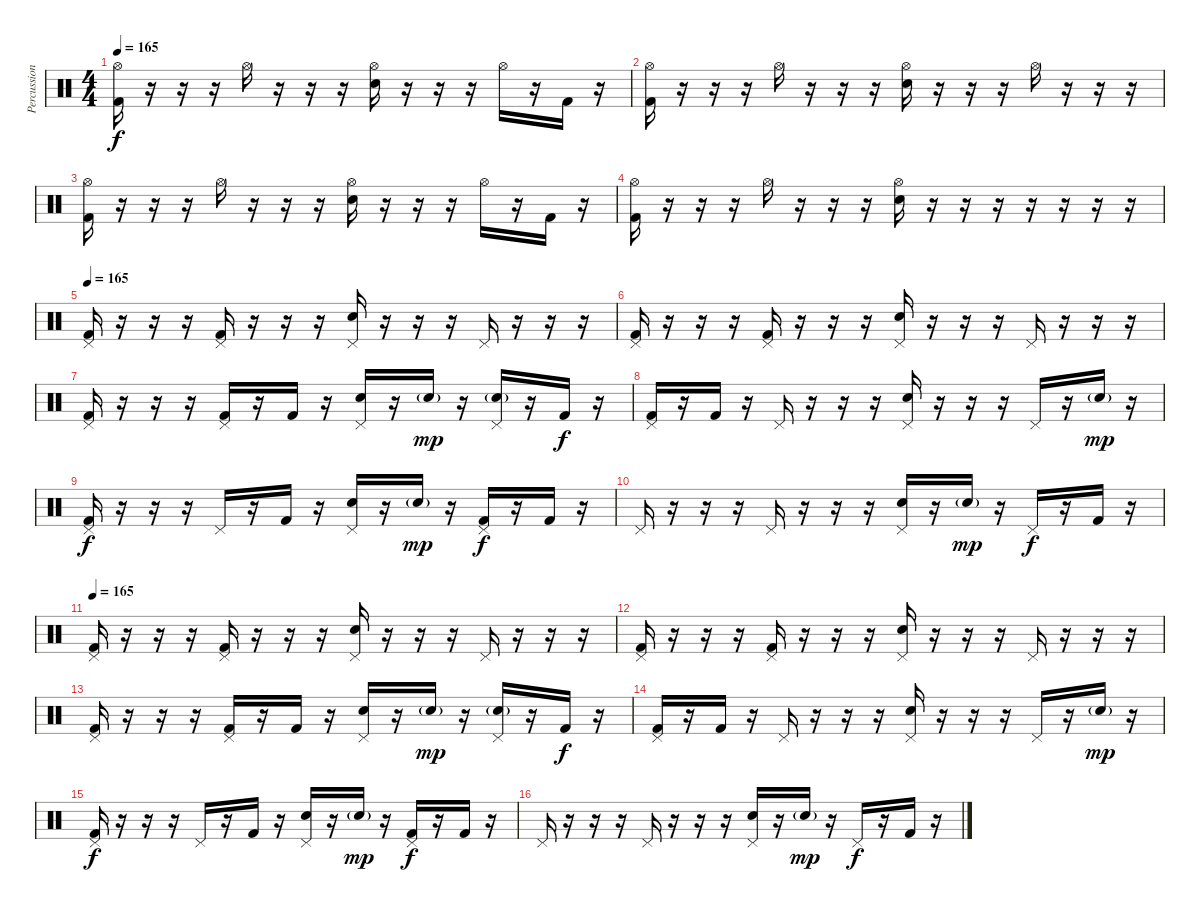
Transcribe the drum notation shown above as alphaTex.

\track ("Percussion" "Percussion") {instrument percussion}
\staff {score}
\articulation defaults
\ts (4 4)
\tempo 165
\clef neutral
\ks c
("Hi-Hat (open)" "Kick (hit) 2").16{dy f} r.16 r.16 r.16 "Hi-Hat (open)".16 r.16 r.16 r.16 ("Hi-Hat (open)" "Snare (hit) 2").16 r.16 r.16 r.16 "Hi-Hat (open)".16 r.16 "Kick (hit) 2".16 r.16 |
("Hi-Hat (open)" "Kick (hit) 2").16 r.16 r.16 r.16 "Hi-Hat (open)".16 r.16 r.16 r.16 ("Hi-Hat (open)" "Snare (hit) 2").16 r.16 r.16 r.16 "Hi-Hat (open)".16 r.16 r.16 r.16 |
("Hi-Hat (open)" "Kick (hit) 2").16 r.16 r.16 r.16 "Hi-Hat (open)".16 r.16 r.16 r.16 ("Hi-Hat (open)" "Snare (hit) 2").16 r.16 r.16 r.16 "Hi-Hat (open)".16 r.16 "Kick (hit) 2".16 r.16 |
("Hi-Hat (open)" "Kick (hit) 2").16 r.16 r.16 r.16 "Hi-Hat (open)".16 r.16 r.16 r.16 ("Hi-Hat (open)" "Snare (hit) 2").16 r.16 r.16 r.16 r.16 r.16 r.16 r.16 |
\tempo 162
\tempo 165
("Pedal Hi-Hat (hit)" "Kick (hit) 2").16 r.16 r.16 r.16 ("Pedal Hi-Hat (hit)" "Kick (hit) 2").16 r.16 r.16 r.16 ("Pedal Hi-Hat (hit)" "Snare (hit) 2").16 r.16 r.16 r.16 "Pedal Hi-Hat (hit)".16 r.16 r.16 r.16 |
("Pedal Hi-Hat (hit)" "Kick (hit) 2").16 r.16 r.16 r.16 ("Pedal Hi-Hat (hit)" "Kick (hit) 2").16 r.16 r.16 r.16 ("Pedal Hi-Hat (hit)" "Snare (hit) 2").16 r.16 r.16 r.16 "Pedal Hi-Hat (hit)".16 r.16 r.16 r.16 |
("Pedal Hi-Hat (hit)" "Kick (hit) 2").16 r.16 r.16 r.16 ("Pedal Hi-Hat (hit)" "Kick (hit) 2").16 r.16 "Kick (hit) 2".16 r.16 ("Pedal Hi-Hat (hit)" "Snare (hit) 2").16 r.16 "Snare (hit) 2"{g}.16{dy mp} r.16 ("Pedal Hi-Hat (hit)" "Snare (hit) 2"{g}).16 r.16 "Kick (hit) 2".16{dy f} r.16 |
("Pedal Hi-Hat (hit)" "Kick (hit) 2").16 r.16 "Kick (hit) 2".16 r.16 "Pedal Hi-Hat (hit)".16 r.16 r.16 r.16 ("Pedal Hi-Hat (hit)" "Snare (hit) 2").16 r.16 r.16 r.16 "Pedal Hi-Hat (hit)".16 r.16 "Snare (hit) 2"{g}.16{dy mp} r.16 |
("Pedal Hi-Hat (hit)" "Kick (hit) 2").16{dy f} r.16 r.16 r.16 "Pedal Hi-Hat (hit)".16 r.16 "Kick (hit) 2".16 r.16 ("Pedal Hi-Hat (hit)" "Snare (hit) 2").16 r.16 "Snare (hit) 2"{g}.16{dy mp} r.16 ("Pedal Hi-Hat (hit)" "Kick (hit) 2").16{dy f} r.16 "Kick (hit) 2".16 r.16 |
"Pedal Hi-Hat (hit)".16 r.16 r.16 r.16 "Pedal Hi-Hat (hit)".16 r.16 r.16 r.16 ("Pedal Hi-Hat (hit)" "Snare (hit) 2").16 r.16 "Snare (hit) 2"{g}.16{dy mp} r.16 "Pedal Hi-Hat (hit)".16{dy f} r.16 "Kick (hit) 2".16 r.16 |
\tempo 165
("Pedal Hi-Hat (hit)" "Kick (hit) 2").16 r.16 r.16 r.16 ("Pedal Hi-Hat (hit)" "Kick (hit) 2").16 r.16 r.16 r.16 ("Pedal Hi-Hat (hit)" "Snare (hit) 2").16 r.16 r.16 r.16 "Pedal Hi-Hat (hit)".16 r.16 r.16 r.16 |
("Pedal Hi-Hat (hit)" "Kick (hit) 2").16 r.16 r.16 r.16 ("Pedal Hi-Hat (hit)" "Kick (hit) 2").16 r.16 r.16 r.16 ("Pedal Hi-Hat (hit)" "Snare (hit) 2").16 r.16 r.16 r.16 "Pedal Hi-Hat (hit)".16 r.16 r.16 r.16 |
("Pedal Hi-Hat (hit)" "Kick (hit) 2").16 r.16 r.16 r.16 ("Pedal Hi-Hat (hit)" "Kick (hit) 2").16 r.16 "Kick (hit) 2".16 r.16 ("Pedal Hi-Hat (hit)" "Snare (hit) 2").16 r.16 "Snare (hit) 2"{g}.16{dy mp} r.16 ("Pedal Hi-Hat (hit)" "Snare (hit) 2"{g}).16 r.16 "Kick (hit) 2".16{dy f} r.16 |
("Pedal Hi-Hat (hit)" "Kick (hit) 2").16 r.16 "Kick (hit) 2".16 r.16 "Pedal Hi-Hat (hit)".16 r.16 r.16 r.16 ("Pedal Hi-Hat (hit)" "Snare (hit) 2").16 r.16 r.16 r.16 "Pedal Hi-Hat (hit)".16 r.16 "Snare (hit) 2"{g}.16{dy mp} r.16 |
("Pedal Hi-Hat (hit)" "Kick (hit) 2").16{dy f} r.16 r.16 r.16 "Pedal Hi-Hat (hit)".16 r.16 "Kick (hit) 2".16 r.16 ("Pedal Hi-Hat (hit)" "Snare (hit) 2").16 r.16 "Snare (hit) 2"{g}.16{dy mp} r.16 ("Pedal Hi-Hat (hit)" "Kick (hit) 2").16{dy f} r.16 "Kick (hit) 2".16 r.16 |
"Pedal Hi-Hat (hit)".16 r.16 r.16 r.16 "Pedal Hi-Hat (hit)".16 r.16 r.16 r.16 ("Pedal Hi-Hat (hit)" "Snare (hit) 2").16 r.16 "Snare (hit) 2"{g}.16{dy mp} r.16 "Pedal Hi-Hat (hit)".16{dy f} r.16 "Kick (hit) 2".16 r.16
